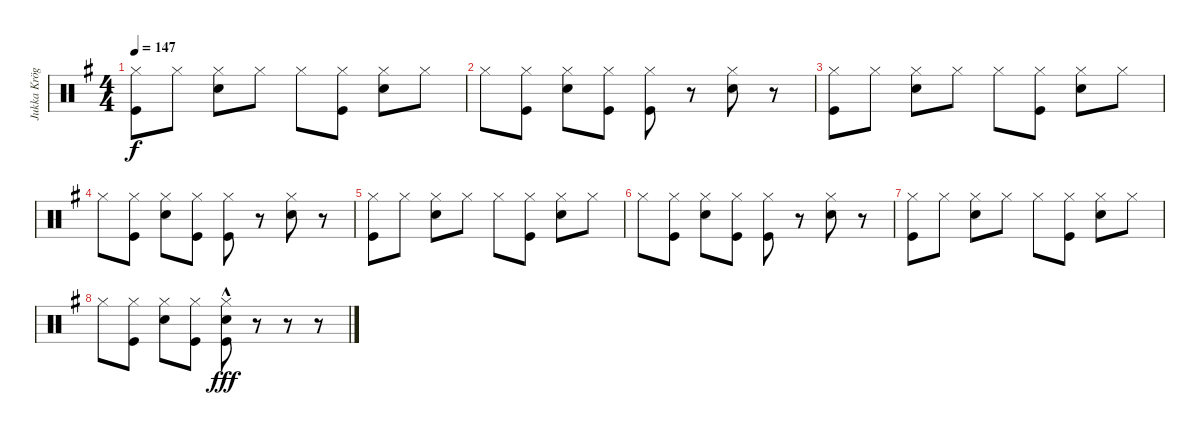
\track ("Jukka Kröger" "Jukka Krög") {instrument percussion}
\staff {score}
\articulation defaults
\ts (4 4)
\tempo 147
\clef neutral
\ks eminor
("Hi-Hat (closed)" "Kick (hit)").8{dy f} "Hi-Hat (closed)".8 ("Hi-Hat (closed)" "Snare (hit) 2").8 "Hi-Hat (closed)".8 "Hi-Hat (closed)".8 ("Hi-Hat (closed)" "Kick (hit)").8 ("Hi-Hat (closed)" "Snare (hit) 2").8 "Hi-Hat (closed)".8 |
"Hi-Hat (closed)".8 ("Hi-Hat (closed)" "Kick (hit)").8 ("Hi-Hat (closed)" "Snare (hit) 2").8 ("Hi-Hat (closed)" "Kick (hit)").8 ("Hi-Hat (closed)" "Kick (hit)").8 r.8 ("Hi-Hat (closed)" "Snare (hit) 2").8 r.8 |
("Hi-Hat (closed)" "Kick (hit)").8 "Hi-Hat (closed)".8 ("Hi-Hat (closed)" "Snare (hit) 2").8 "Hi-Hat (closed)".8 "Hi-Hat (closed)".8 ("Hi-Hat (closed)" "Kick (hit)").8 ("Hi-Hat (closed)" "Snare (hit) 2").8 "Hi-Hat (closed)".8 |
"Hi-Hat (closed)".8 ("Hi-Hat (closed)" "Kick (hit)").8 ("Hi-Hat (closed)" "Snare (hit) 2").8 ("Hi-Hat (closed)" "Kick (hit)").8 ("Hi-Hat (closed)" "Kick (hit)").8 r.8 ("Hi-Hat (closed)" "Snare (hit) 2").8 r.8 |
("Hi-Hat (closed)" "Kick (hit)").8 "Hi-Hat (closed)".8 ("Hi-Hat (closed)" "Snare (hit) 2").8 "Hi-Hat (closed)".8 "Hi-Hat (closed)".8 ("Hi-Hat (closed)" "Kick (hit)").8 ("Hi-Hat (closed)" "Snare (hit) 2").8 "Hi-Hat (closed)".8 |
"Hi-Hat (closed)".8 ("Hi-Hat (closed)" "Kick (hit)").8 ("Hi-Hat (closed)" "Snare (hit) 2").8 ("Hi-Hat (closed)" "Kick (hit)").8 ("Hi-Hat (closed)" "Kick (hit)").8 r.8 ("Hi-Hat (closed)" "Snare (hit) 2").8 r.8 |
("Hi-Hat (closed)" "Kick (hit)").8 "Hi-Hat (closed)".8 ("Hi-Hat (closed)" "Snare (hit) 2").8 "Hi-Hat (closed)".8 "Hi-Hat (closed)".8 ("Hi-Hat (closed)" "Kick (hit)").8 ("Hi-Hat (closed)" "Snare (hit) 2").8 "Hi-Hat (closed)".8 |
"Hi-Hat (closed)".8 ("Hi-Hat (closed)" "Kick (hit)").8 ("Hi-Hat (closed)" "Snare (hit) 2").8 ("Hi-Hat (closed)" "Kick (hit)").8 ("Hi-Hat (closed)"{hac} "Snare (hit) 2"{hac} "Kick (hit)"{hac}).8{dy fff} r.8 r.8 r.8
